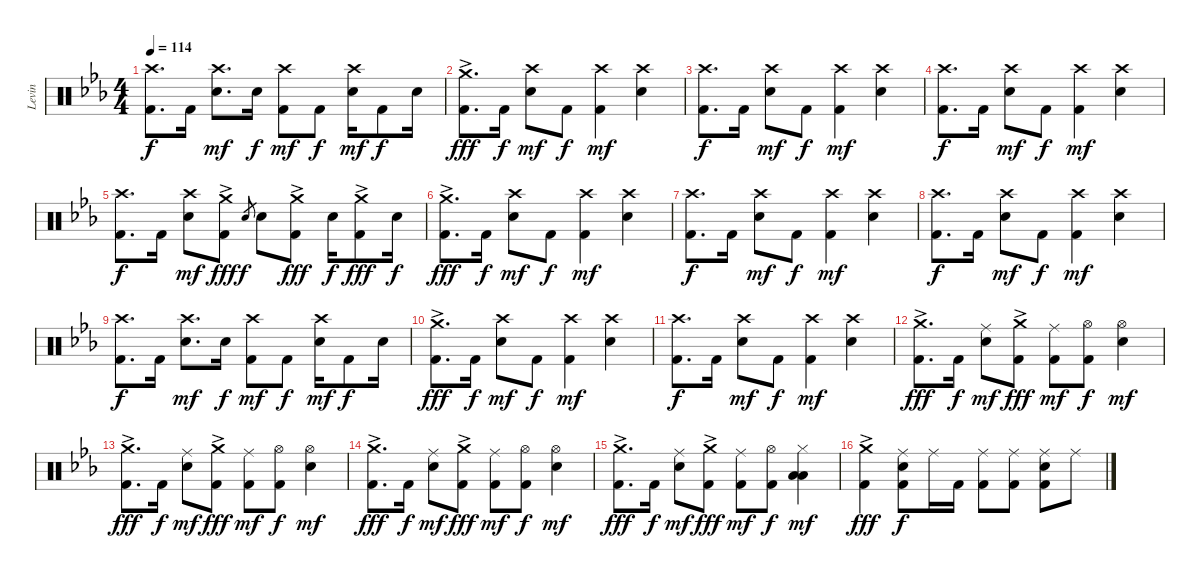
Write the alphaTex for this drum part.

\track ("Levin" "Levin") {instrument percussion}
\staff {score}
\articulation defaults
\ts (4 4)
\tempo 114
\clef neutral
\ks eb
("Crash high (hit)" "Kick (hit) 2").8{d dy f} "Kick (hit) 2".16 ("Crash high (hit)" "Electric Snare (hit)").8{d dy mf} "Electric Snare (hit)".16{dy f} ("Crash high (hit)" "Kick (hit) 2").8{dy mf} "Kick (hit) 2".8{dy f} ("Crash high (hit)" "Electric Snare (hit)").16{dy mf} "Kick (hit) 2".8{dy f} "Electric Snare (hit)".16 |
("Crash medium (hit)"{ac} "Kick (hit) 2").8{d dy fff} "Kick (hit) 2".16{dy f} ("Crash high (hit)" "Electric Snare (hit)").8{dy mf} "Kick (hit) 2".8{dy f} ("Crash high (hit)" "Kick (hit) 2").4{dy mf} ("Crash high (hit)" "Electric Snare (hit)").4 |
("Crash high (hit)" "Kick (hit) 2").8{d dy f} "Kick (hit) 2".16 ("Crash high (hit)" "Electric Snare (hit)").8{dy mf} "Kick (hit) 2".8{dy f} ("Crash high (hit)" "Kick (hit) 2").4{dy mf} ("Crash high (hit)" "Electric Snare (hit)").4 |
("Crash high (hit)" "Kick (hit) 2").8{d dy f} "Kick (hit) 2".16 ("Crash high (hit)" "Electric Snare (hit)").8{dy mf} "Kick (hit) 2".8{dy f} ("Crash high (hit)" "Kick (hit) 2").4{dy mf} ("Crash high (hit)" "Electric Snare (hit)").4 |
("Crash high (hit)" "Kick (hit) 2").8{d dy f} "Kick (hit) 2".16 ("Crash high (hit)" "Electric Snare (hit)").8{dy mf} ("Crash medium (hit)"{ac} "Kick (hit) 2").8{dy fff} "Electric Snare (hit)".8{gr dy f} "Electric Snare (hit)".8 ("Crash medium (hit)"{ac} "Kick (hit) 2").8{dy fff} "Electric Snare (hit)".16{dy f} ("Crash medium (hit)"{ac} "Kick (hit) 2").8{dy fff} "Electric Snare (hit)".16{dy f} |
("Crash medium (hit)"{ac} "Kick (hit) 2").8{d dy fff} "Kick (hit) 2".16{dy f} ("Crash high (hit)" "Electric Snare (hit)").8{dy mf} "Kick (hit) 2".8{dy f} ("Crash high (hit)" "Kick (hit) 2").4{dy mf} ("Crash high (hit)" "Electric Snare (hit)").4 |
("Crash high (hit)" "Kick (hit) 2").8{d dy f} "Kick (hit) 2".16 ("Crash high (hit)" "Electric Snare (hit)").8{dy mf} "Kick (hit) 2".8{dy f} ("Crash high (hit)" "Kick (hit) 2").4{dy mf} ("Crash high (hit)" "Electric Snare (hit)").4 |
("Crash high (hit)" "Kick (hit) 2").8{d dy f} "Kick (hit) 2".16 ("Crash high (hit)" "Electric Snare (hit)").8{dy mf} "Kick (hit) 2".8{dy f} ("Crash high (hit)" "Kick (hit) 2").4{dy mf} ("Crash high (hit)" "Electric Snare (hit)").4 |
("Crash high (hit)" "Kick (hit) 2").8{d dy f} "Kick (hit) 2".16 ("Crash high (hit)" "Electric Snare (hit)").8{d dy mf} "Electric Snare (hit)".16{dy f} ("Crash high (hit)" "Kick (hit) 2").8{dy mf} "Kick (hit) 2".8{dy f} ("Crash high (hit)" "Electric Snare (hit)").16{dy mf} "Kick (hit) 2".8{dy f} "Electric Snare (hit)".16 |
("Crash medium (hit)"{ac} "Kick (hit) 2").8{d dy fff} "Kick (hit) 2".16{dy f} ("Crash high (hit)" "Electric Snare (hit)").8{dy mf} "Kick (hit) 2".8{dy f} ("Crash high (hit)" "Kick (hit) 2").4{dy mf} ("Crash high (hit)" "Electric Snare (hit)").4 |
("Crash high (hit)" "Kick (hit) 2").8{d dy f} "Kick (hit) 2".16 ("Crash high (hit)" "Electric Snare (hit)").8{dy mf} "Kick (hit) 2".8{dy f} ("Crash high (hit)" "Kick (hit) 2").4{dy mf} ("Crash high (hit)" "Electric Snare (hit)").4 |
("Crash medium (hit)"{ac} "Kick (hit) 2").8{d dy fff} "Kick (hit) 2".16{dy f} ("Ride (middle)" "Electric Snare (hit)").8{dy mf} ("Crash medium (hit)"{ac} "Kick (hit) 2").8{dy fff} ("Ride (middle)" "Kick (hit) 2").8{dy mf} ("Hi-Hat (open)" "Kick (hit) 2").8{dy f} ("Hi-Hat (open)" "Electric Snare (hit)").4{dy mf} |
("Crash medium (hit)"{ac} "Kick (hit) 2").8{d dy fff} "Kick (hit) 2".16{dy f} ("Ride (middle)" "Electric Snare (hit)").8{dy mf} ("Crash medium (hit)"{ac} "Kick (hit) 2").8{dy fff} ("Ride (middle)" "Kick (hit) 2").8{dy mf} ("Hi-Hat (open)" "Kick (hit) 2").8{dy f} ("Hi-Hat (open)" "Electric Snare (hit)").4{dy mf} |
("Crash medium (hit)"{ac} "Kick (hit) 2").8{d dy fff} "Kick (hit) 2".16{dy f} ("Ride (middle)" "Electric Snare (hit)").8{dy mf} ("Crash medium (hit)"{ac} "Kick (hit) 2").8{dy fff} ("Ride (middle)" "Kick (hit) 2").8{dy mf} ("Hi-Hat (open)" "Kick (hit) 2").8{dy f} ("Hi-Hat (open)" "Electric Snare (hit)").4{dy mf} |
("Crash medium (hit)"{ac} "Kick (hit) 2").8{d dy fff} "Kick (hit) 2".16{dy f} ("Ride (middle)" "Electric Snare (hit)").8{dy mf} ("Crash medium (hit)"{ac} "Kick (hit) 2").8{dy fff} ("Ride (middle)" "Kick (hit) 2").8{dy mf} ("Hi-Hat (open)" "Kick (hit) 2").8{dy f} ("Hi-Hat (closed)" "Low Tom (hit)" "Low Floor Tom (hit)").4{dy mf} |
("Crash medium (hit)"{ac} "Kick (hit) 2").4{dy fff} ("Ride (middle)" "Electric Snare (hit)" "Kick (hit) 2").8{dy f} "Ride (middle)".16 "Kick (hit) 2".16 ("Ride (middle)" "Kick (hit) 2").8 ("Ride (middle)" "Kick (hit) 2").8 ("Ride (middle)" "Electric Snare (hit)" "Kick (hit) 2").8 "Ride (middle)".8
